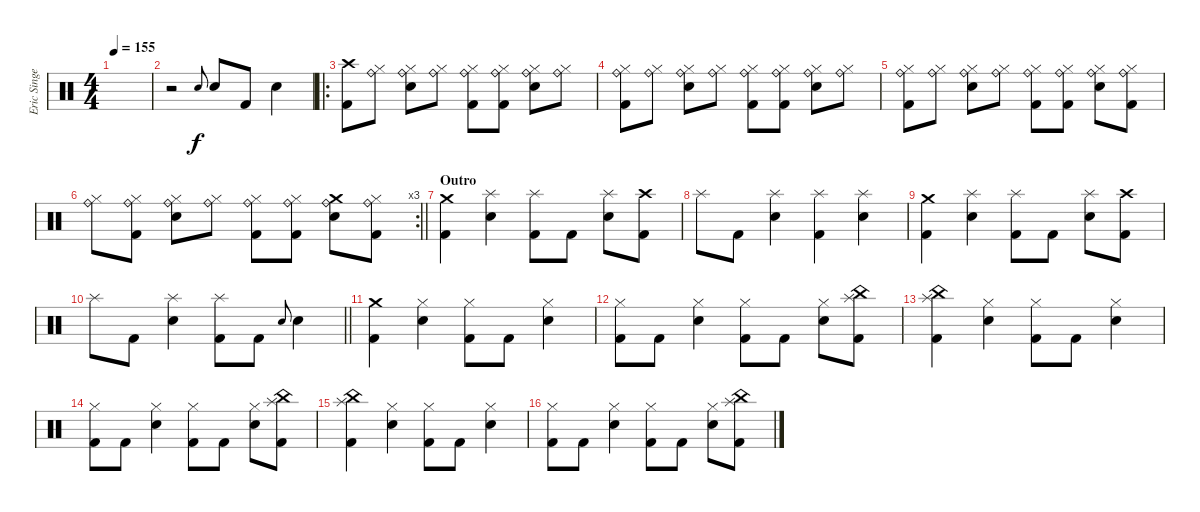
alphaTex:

\track ("Eric Singer" "Eric Singe") {instrument percussion}
\staff {score}
\articulation defaults
\ts (4 4)
\tempo 155
\clef neutral
\ks c
|
r.2 "Snare (hit) 2".8{gr onbeat} "Snare (hit) 2".8 "Kick (hit) 2".8 "Snare (hit) 2".4 |
\ro
("Crash high (hit)" "Kick (hit) 2").8 ("Hi-Hat (closed)" "Ride (bell)").8 ("Hi-Hat (closed)" "Ride (bell)" "Snare (hit) 2").8 ("Hi-Hat (closed)" "Ride (bell)").8 ("Hi-Hat (closed)" "Ride (bell)" "Kick (hit) 2").8 ("Hi-Hat (closed)" "Ride (bell)" "Kick (hit) 2").8 ("Hi-Hat (closed)" "Ride (bell)" "Snare (hit) 2").8 ("Hi-Hat (closed)" "Ride (bell)").8 |
("Hi-Hat (closed)" "Ride (bell)" "Kick (hit) 2").8 ("Hi-Hat (closed)" "Ride (bell)").8 ("Hi-Hat (closed)" "Ride (bell)" "Snare (hit) 2").8 ("Hi-Hat (closed)" "Ride (bell)").8 ("Hi-Hat (closed)" "Ride (bell)" "Kick (hit) 2").8 ("Hi-Hat (closed)" "Ride (bell)" "Kick (hit) 2").8 ("Hi-Hat (closed)" "Ride (bell)" "Snare (hit) 2").8 ("Hi-Hat (closed)" "Ride (bell)").8 |
("Hi-Hat (closed)" "Ride (bell)" "Kick (hit) 2").8 ("Hi-Hat (closed)" "Ride (bell)").8 ("Hi-Hat (closed)" "Ride (bell)" "Snare (hit) 2").8 ("Hi-Hat (closed)" "Ride (bell)").8 ("Hi-Hat (closed)" "Ride (bell)" "Kick (hit) 2").8 ("Hi-Hat (closed)" "Ride (bell)" "Kick (hit) 2").8 ("Hi-Hat (closed)" "Ride (bell)" "Snare (hit) 2").8 ("Hi-Hat (closed)" "Ride (bell)" "Kick (hit) 2").8 |
\rc 3
\barLineRight lightlight
("Hi-Hat (closed)" "Ride (bell)").8 ("Hi-Hat (closed)" "Ride (bell)" "Kick (hit) 2").8 ("Hi-Hat (closed)" "Ride (bell)" "Snare (hit) 2").8 ("Hi-Hat (closed)" "Ride (bell)").8 ("Hi-Hat (closed)" "Ride (bell)" "Kick (hit) 2").8 ("Hi-Hat (closed)" "Ride (bell)" "Kick (hit) 2").8 ("Crash medium (hit)" "Ride (bell)" "Snare (hit) 2").8 ("Hi-Hat (closed)" "Ride (bell)" "Kick (hit) 2").8 |
\section ("" "Outro")
("Crash medium (hit)" "Kick (hit) 2").4 ("Splash (hit)" "Snare (hit) 2").4 ("Splash (hit)" "Kick (hit) 2").8 "Kick (hit) 2".8 ("Splash (hit)" "Snare (hit) 2").8 ("Crash high (hit)" "Kick (hit) 2").8 |
"Splash (hit)".8 "Kick (hit) 2".8 ("Splash (hit)" "Snare (hit) 2").4 ("Splash (hit)" "Kick (hit) 2").4 ("Splash (hit)" "Snare (hit) 2").4 |
("Crash medium (hit)" "Kick (hit) 2").4 ("Splash (hit)" "Snare (hit) 2").4 ("Splash (hit)" "Kick (hit) 2").8 "Kick (hit) 2".8 ("Splash (hit)" "Snare (hit) 2").8 ("Crash high (hit)" "Kick (hit) 2").8 |
\barLineRight lightlight "Splash (hit)".8 "Kick (hit) 2".8
("Splash (hit)" "Snare (hit) 2").4 ("Splash (hit)" "Kick (hit) 2").8 "Kick (hit) 2".8 "Snare (hit) 2".8{gr onbeat} "Snare (hit) 2".4 |
("Crash medium (hit)" "Kick (hit) 2").4 ("Hi-Hat (closed)" "Snare (hit) 2").4 ("Hi-Hat (closed)" "Kick (hit) 2").8 "Kick (hit) 2".8 ("Hi-Hat (closed)" "Snare (hit) 2").4 |
("Hi-Hat (closed)" "Kick (hit) 2").8 "Kick (hit) 2".8 ("Hi-Hat (closed)" "Snare (hit) 2").4 ("Hi-Hat (closed)" "Kick (hit) 2").8 "Kick (hit) 2".8 ("Hi-Hat (closed)" "Snare (hit) 2").8 ("Splash (hit)" "China (hit)" "Kick (hit) 2").8 |
("Splash (hit)" "China (hit)" "Kick (hit) 2").4 ("Hi-Hat (closed)" "Snare (hit) 2").4 ("Hi-Hat (closed)" "Kick (hit) 2").8 "Kick (hit) 2".8 ("Hi-Hat (closed)" "Snare (hit) 2").4 |
("Hi-Hat (closed)" "Kick (hit) 2").8 "Kick (hit) 2".8 ("Hi-Hat (closed)" "Snare (hit) 2").4 ("Hi-Hat (closed)" "Kick (hit) 2").8 "Kick (hit) 2".8 ("Hi-Hat (closed)" "Snare (hit) 2").8 ("Splash (hit)" "China (hit)" "Kick (hit) 2").8 |
("Splash (hit)" "China (hit)" "Kick (hit) 2").4 ("Hi-Hat (closed)" "Snare (hit) 2").4 ("Hi-Hat (closed)" "Kick (hit) 2").8 "Kick (hit) 2".8 ("Hi-Hat (closed)" "Snare (hit) 2").4 |
("Hi-Hat (closed)" "Kick (hit) 2").8 "Kick (hit) 2".8 ("Hi-Hat (closed)" "Snare (hit) 2").4 ("Hi-Hat (closed)" "Kick (hit) 2").8 "Kick (hit) 2".8 ("Hi-Hat (closed)" "Snare (hit) 2").8 ("Splash (hit)" "China (hit)" "Kick (hit) 2").8
